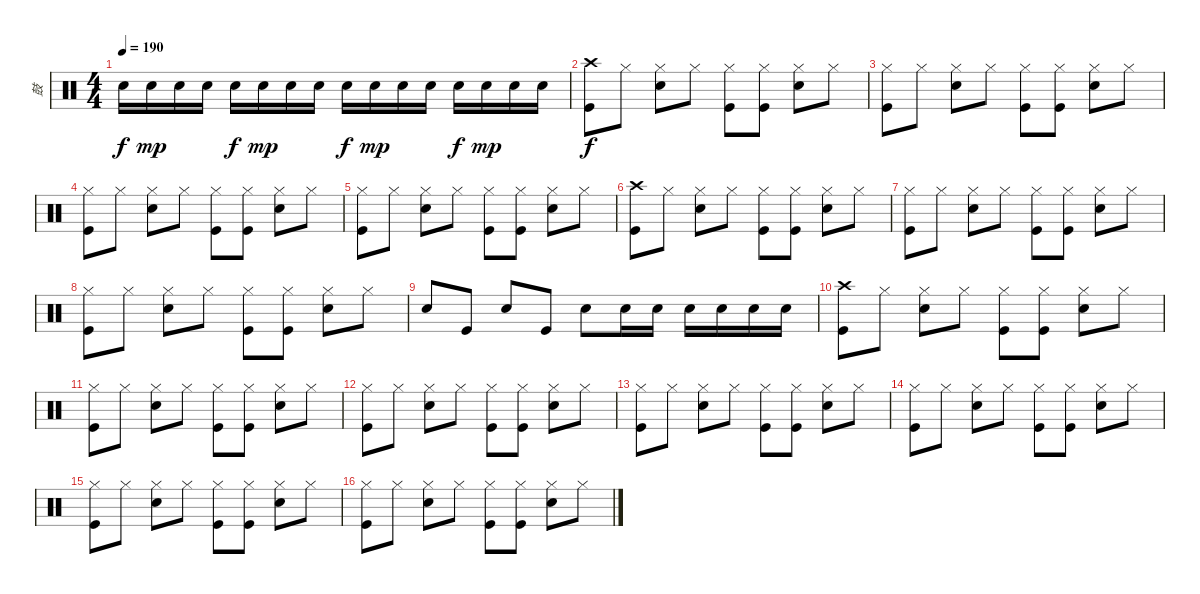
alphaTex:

\track ("鼓" "鼓") {instrument percussion}
\staff {score}
\articulation defaults
\ts (4 4)
\tempo 190
\clef neutral
\ks c "Snare (hit) 2".16{dy f} "Snare (hit) 2".16{dy mp} "Snare (hit) 2".16 "Snare (hit) 2".16 "Snare (hit) 2".16{dy f} "Snare (hit) 2".16{dy mp} "Snare (hit) 2".16 "Snare (hit) 2".16 "Snare (hit) 2".16{dy f} "Snare (hit) 2".16{dy mp} "Snare (hit) 2".16 "Snare (hit) 2".16 "Snare (hit) 2".16{dy f} "Snare (hit) 2".16{dy mp} "Snare (hit) 2".16 "Snare (hit) 2".16
|
("Crash high (hit)" "Kick (hit)").8{dy f} "Hi-Hat (closed)".8 ("Hi-Hat (closed)" "Snare (hit) 2").8 "Hi-Hat (closed)".8 ("Hi-Hat (closed)" "Kick (hit)").8 ("Hi-Hat (closed)" "Kick (hit)").8 ("Hi-Hat (closed)" "Snare (hit) 2").8 "Hi-Hat (closed)".8 |
("Hi-Hat (closed)" "Kick (hit)").8 "Hi-Hat (closed)".8 ("Hi-Hat (closed)" "Snare (hit) 2").8 "Hi-Hat (closed)".8 ("Hi-Hat (closed)" "Kick (hit)").8 ("Hi-Hat (closed)" "Kick (hit)").8 ("Hi-Hat (closed)" "Snare (hit) 2").8 "Hi-Hat (closed)".8 |
("Hi-Hat (closed)" "Kick (hit)").8 "Hi-Hat (closed)".8 ("Hi-Hat (closed)" "Snare (hit) 2").8 "Hi-Hat (closed)".8 ("Hi-Hat (closed)" "Kick (hit)").8 ("Hi-Hat (closed)" "Kick (hit)").8 ("Hi-Hat (closed)" "Snare (hit) 2").8 "Hi-Hat (closed)".8 |
("Hi-Hat (closed)" "Kick (hit)").8 "Hi-Hat (closed)".8 ("Hi-Hat (closed)" "Snare (hit) 2").8 "Hi-Hat (closed)".8 ("Hi-Hat (closed)" "Kick (hit)").8 ("Hi-Hat (closed)" "Kick (hit)").8 ("Hi-Hat (closed)" "Snare (hit) 2").8 "Hi-Hat (closed)".8 |
("Crash high (hit)" "Kick (hit)").8 "Hi-Hat (closed)".8 ("Hi-Hat (closed)" "Snare (hit) 2").8 "Hi-Hat (closed)".8 ("Hi-Hat (closed)" "Kick (hit)").8 ("Hi-Hat (closed)" "Kick (hit)").8 ("Hi-Hat (closed)" "Snare (hit) 2").8 "Hi-Hat (closed)".8 |
("Hi-Hat (closed)" "Kick (hit)").8 "Hi-Hat (closed)".8 ("Hi-Hat (closed)" "Snare (hit) 2").8 "Hi-Hat (closed)".8 ("Hi-Hat (closed)" "Kick (hit)").8 ("Hi-Hat (closed)" "Kick (hit)").8 ("Hi-Hat (closed)" "Snare (hit) 2").8 "Hi-Hat (closed)".8 |
("Hi-Hat (closed)" "Kick (hit)").8 "Hi-Hat (closed)".8 ("Hi-Hat (closed)" "Snare (hit) 2").8 "Hi-Hat (closed)".8 ("Hi-Hat (closed)" "Kick (hit)").8 ("Hi-Hat (closed)" "Kick (hit)").8 ("Hi-Hat (closed)" "Snare (hit) 2").8 "Hi-Hat (closed)".8 |
"Snare (hit) 2".8 "Kick (hit)".8 "Snare (hit) 2".8 "Kick (hit)".8 "Snare (hit) 2".8 "Snare (hit) 2".16 "Snare (hit) 2".16 "Snare (hit) 2".16 "Snare (hit) 2".16 "Snare (hit) 2".16 "Snare (hit) 2".16 |
("Crash high (hit)" "Kick (hit)").8 "Hi-Hat (closed)".8 ("Hi-Hat (closed)" "Snare (hit) 2").8 "Hi-Hat (closed)".8 ("Hi-Hat (closed)" "Kick (hit)").8 ("Hi-Hat (closed)" "Kick (hit)").8 ("Hi-Hat (closed)" "Snare (hit) 2").8 "Hi-Hat (closed)".8 |
("Hi-Hat (closed)" "Kick (hit)").8 "Hi-Hat (closed)".8 ("Hi-Hat (closed)" "Snare (hit) 2").8 "Hi-Hat (closed)".8 ("Hi-Hat (closed)" "Kick (hit)").8 ("Hi-Hat (closed)" "Kick (hit)").8 ("Hi-Hat (closed)" "Snare (hit) 2").8 "Hi-Hat (closed)".8 |
("Hi-Hat (closed)" "Kick (hit)").8 "Hi-Hat (closed)".8 ("Hi-Hat (closed)" "Snare (hit) 2").8 "Hi-Hat (closed)".8 ("Hi-Hat (closed)" "Kick (hit)").8 ("Hi-Hat (closed)" "Kick (hit)").8 ("Hi-Hat (closed)" "Snare (hit) 2").8 "Hi-Hat (closed)".8 |
("Hi-Hat (closed)" "Kick (hit)").8 "Hi-Hat (closed)".8 ("Hi-Hat (closed)" "Snare (hit) 2").8 "Hi-Hat (closed)".8 ("Hi-Hat (closed)" "Kick (hit)").8 ("Hi-Hat (closed)" "Kick (hit)").8 ("Hi-Hat (closed)" "Snare (hit) 2").8 "Hi-Hat (closed)".8 |
("Hi-Hat (closed)" "Kick (hit)").8 "Hi-Hat (closed)".8 ("Hi-Hat (closed)" "Snare (hit) 2").8 "Hi-Hat (closed)".8 ("Hi-Hat (closed)" "Kick (hit)").8 ("Hi-Hat (closed)" "Kick (hit)").8 ("Hi-Hat (closed)" "Snare (hit) 2").8 "Hi-Hat (closed)".8 |
("Hi-Hat (closed)" "Kick (hit)").8 "Hi-Hat (closed)".8 ("Hi-Hat (closed)" "Snare (hit) 2").8 "Hi-Hat (closed)".8 ("Hi-Hat (closed)" "Kick (hit)").8 ("Hi-Hat (closed)" "Kick (hit)").8 ("Hi-Hat (closed)" "Snare (hit) 2").8 "Hi-Hat (closed)".8 |
("Hi-Hat (closed)" "Kick (hit)").8 "Hi-Hat (closed)".8 ("Hi-Hat (closed)" "Snare (hit) 2").8 "Hi-Hat (closed)".8 ("Hi-Hat (closed)" "Kick (hit)").8 ("Hi-Hat (closed)" "Kick (hit)").8 ("Hi-Hat (closed)" "Snare (hit) 2").8 "Hi-Hat (closed)".8
